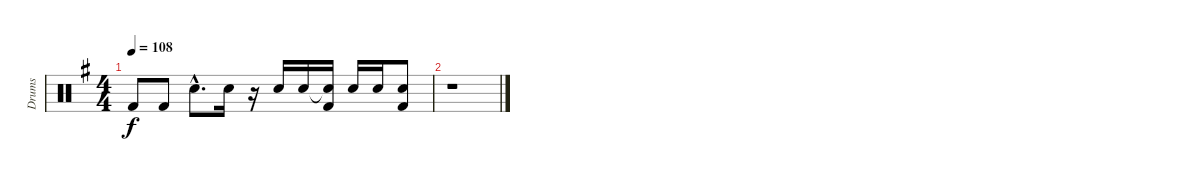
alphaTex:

\track ("Drums" "Drums") {instrument percussion}
\staff {score}
\articulation defaults
\ts (4 4)
\tempo 108
\clef neutral
\ks eminor "Kick (hit) 2".8{dy f} "Kick (hit) 2".8 "Electric Snare (hit)"{hac}.8{d} "Electric Snare (hit)".16
r.16 "Electric Snare (hit)".16 "Electric Snare (hit)".16 ("Snare (hit)"{t} "Kick (hit) 2").16 "Electric Snare (hit)".16 "Electric Snare (hit)".16 ("Electric Snare (hit)" "Kick (hit) 2").8 |
r.1
